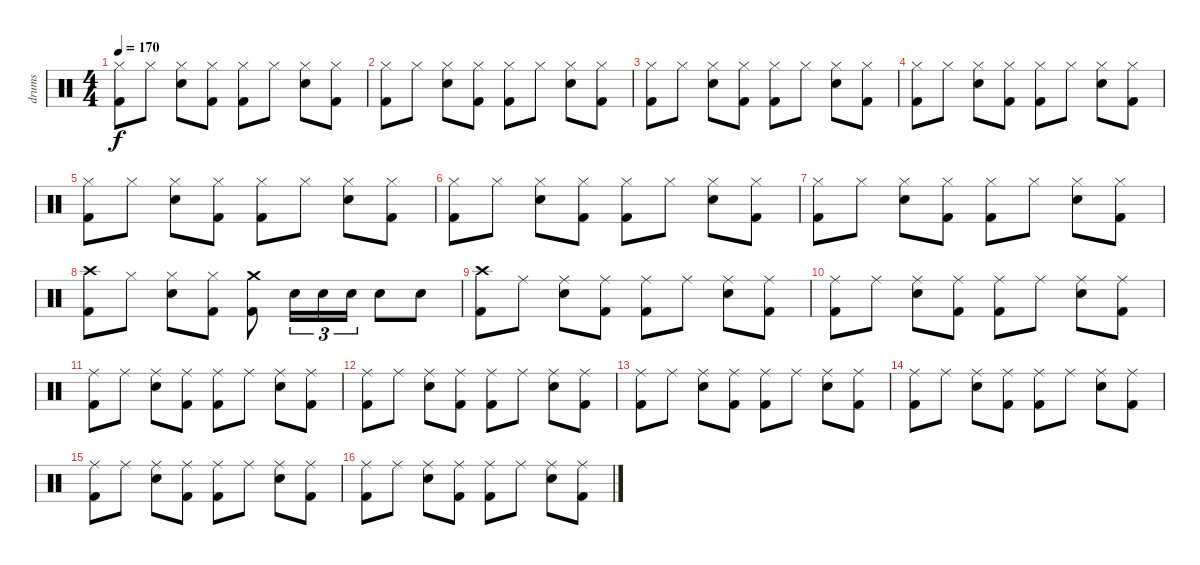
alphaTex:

\track ("drums" "drums") {instrument percussion}
\staff {score}
\articulation defaults
\ts (4 4)
\tempo 170
\clef neutral
\ks c
("Hi-Hat (closed)" "Kick (hit) 2").8{dy f} "Hi-Hat (closed)".8 ("Hi-Hat (closed)" "Snare (hit) 2").8 ("Hi-Hat (closed)" "Kick (hit) 2").8 ("Hi-Hat (closed)" "Kick (hit) 2").8 "Hi-Hat (closed)".8 ("Hi-Hat (closed)" "Snare (hit) 2").8 ("Hi-Hat (closed)" "Kick (hit) 2").8 |
("Hi-Hat (closed)" "Kick (hit) 2").8 "Hi-Hat (closed)".8 ("Hi-Hat (closed)" "Snare (hit) 2").8 ("Hi-Hat (closed)" "Kick (hit) 2").8 ("Hi-Hat (closed)" "Kick (hit) 2").8 "Hi-Hat (closed)".8 ("Hi-Hat (closed)" "Snare (hit) 2").8 ("Hi-Hat (closed)" "Kick (hit) 2").8 |
("Hi-Hat (closed)" "Kick (hit) 2").8 "Hi-Hat (closed)".8 ("Hi-Hat (closed)" "Snare (hit) 2").8 ("Hi-Hat (closed)" "Kick (hit) 2").8 ("Hi-Hat (closed)" "Kick (hit) 2").8 "Hi-Hat (closed)".8 ("Hi-Hat (closed)" "Snare (hit) 2").8 ("Hi-Hat (closed)" "Kick (hit) 2").8 |
("Hi-Hat (closed)" "Kick (hit) 2").8 "Hi-Hat (closed)".8 ("Hi-Hat (closed)" "Snare (hit) 2").8 ("Hi-Hat (closed)" "Kick (hit) 2").8 ("Hi-Hat (closed)" "Kick (hit) 2").8 "Hi-Hat (closed)".8 ("Hi-Hat (closed)" "Snare (hit) 2").8 ("Hi-Hat (closed)" "Kick (hit) 2").8 |
("Hi-Hat (closed)" "Kick (hit) 2").8 "Hi-Hat (closed)".8 ("Hi-Hat (closed)" "Snare (hit) 2").8 ("Hi-Hat (closed)" "Kick (hit) 2").8 ("Hi-Hat (closed)" "Kick (hit) 2").8 "Hi-Hat (closed)".8 ("Hi-Hat (closed)" "Snare (hit) 2").8 ("Hi-Hat (closed)" "Kick (hit) 2").8 |
("Hi-Hat (closed)" "Kick (hit) 2").8 "Hi-Hat (closed)".8 ("Hi-Hat (closed)" "Snare (hit) 2").8 ("Hi-Hat (closed)" "Kick (hit) 2").8 ("Hi-Hat (closed)" "Kick (hit) 2").8 "Hi-Hat (closed)".8 ("Hi-Hat (closed)" "Snare (hit) 2").8 ("Hi-Hat (closed)" "Kick (hit) 2").8 |
("Hi-Hat (closed)" "Kick (hit) 2").8 "Hi-Hat (closed)".8 ("Hi-Hat (closed)" "Snare (hit) 2").8 ("Hi-Hat (closed)" "Kick (hit) 2").8 ("Hi-Hat (closed)" "Kick (hit) 2").8 "Hi-Hat (closed)".8 ("Hi-Hat (closed)" "Snare (hit) 2").8 ("Hi-Hat (closed)" "Kick (hit) 2").8 |
("Crash high (hit)" "Kick (hit) 2").8 "Hi-Hat (closed)".8 ("Hi-Hat (closed)" "Snare (hit) 2").8 ("Hi-Hat (closed)" "Kick (hit) 2").8 ("Crash medium (hit)" "Kick (hit) 2").8 "Snare (hit) 2".16{tu (3 2)} "Snare (hit) 2".16{tu (3 2)} "Snare (hit) 2".16{tu (3 2)} "Snare (hit) 2".8 "Snare (hit) 2".8 |
("Crash high (hit)" "Kick (hit) 2").8 "Ride (middle)".8 ("Ride (middle)" "Snare (hit) 2").8 ("Ride (middle)" "Kick (hit) 2").8 ("Ride (middle)" "Kick (hit) 2").8 "Ride (middle)".8 ("Ride (middle)" "Snare (hit) 2").8 ("Ride (middle)" "Kick (hit) 2").8 |
("Ride (middle)" "Kick (hit) 2").8 "Ride (middle)".8 ("Ride (middle)" "Snare (hit) 2").8 ("Ride (middle)" "Kick (hit) 2").8 ("Ride (middle)" "Kick (hit) 2").8 "Ride (middle)".8 ("Ride (middle)" "Snare (hit) 2").8 ("Ride (middle)" "Kick (hit) 2").8 |
("Ride (middle)" "Kick (hit) 2").8 "Ride (middle)".8 ("Ride (middle)" "Snare (hit) 2").8 ("Ride (middle)" "Kick (hit) 2").8 ("Ride (middle)" "Kick (hit) 2").8 "Ride (middle)".8 ("Ride (middle)" "Snare (hit) 2").8 ("Ride (middle)" "Kick (hit) 2").8 |
("Ride (middle)" "Kick (hit) 2").8 "Ride (middle)".8 ("Ride (middle)" "Snare (hit) 2").8 ("Ride (middle)" "Kick (hit) 2").8 ("Ride (middle)" "Kick (hit) 2").8 "Ride (middle)".8 ("Ride (middle)" "Snare (hit) 2").8 ("Ride (middle)" "Kick (hit) 2").8 |
("Ride (middle)" "Kick (hit) 2").8 "Ride (middle)".8 ("Ride (middle)" "Snare (hit) 2").8 ("Ride (middle)" "Kick (hit) 2").8 ("Ride (middle)" "Kick (hit) 2").8 "Ride (middle)".8 ("Ride (middle)" "Snare (hit) 2").8 ("Ride (middle)" "Kick (hit) 2").8 |
("Ride (middle)" "Kick (hit) 2").8 "Ride (middle)".8 ("Ride (middle)" "Snare (hit) 2").8 ("Ride (middle)" "Kick (hit) 2").8 ("Ride (middle)" "Kick (hit) 2").8 "Ride (middle)".8 ("Ride (middle)" "Snare (hit) 2").8 ("Ride (middle)" "Kick (hit) 2").8 |
("Ride (middle)" "Kick (hit) 2").8 "Ride (middle)".8 ("Ride (middle)" "Snare (hit) 2").8 ("Ride (middle)" "Kick (hit) 2").8 ("Ride (middle)" "Kick (hit) 2").8 "Ride (middle)".8 ("Ride (middle)" "Snare (hit) 2").8 ("Ride (middle)" "Kick (hit) 2").8 |
("Ride (middle)" "Kick (hit) 2").8 "Ride (middle)".8 ("Ride (middle)" "Snare (hit) 2").8 ("Ride (middle)" "Kick (hit) 2").8 ("Ride (middle)" "Kick (hit) 2").8 "Ride (middle)".8 ("Ride (middle)" "Snare (hit) 2").8 ("Ride (middle)" "Kick (hit) 2").8
